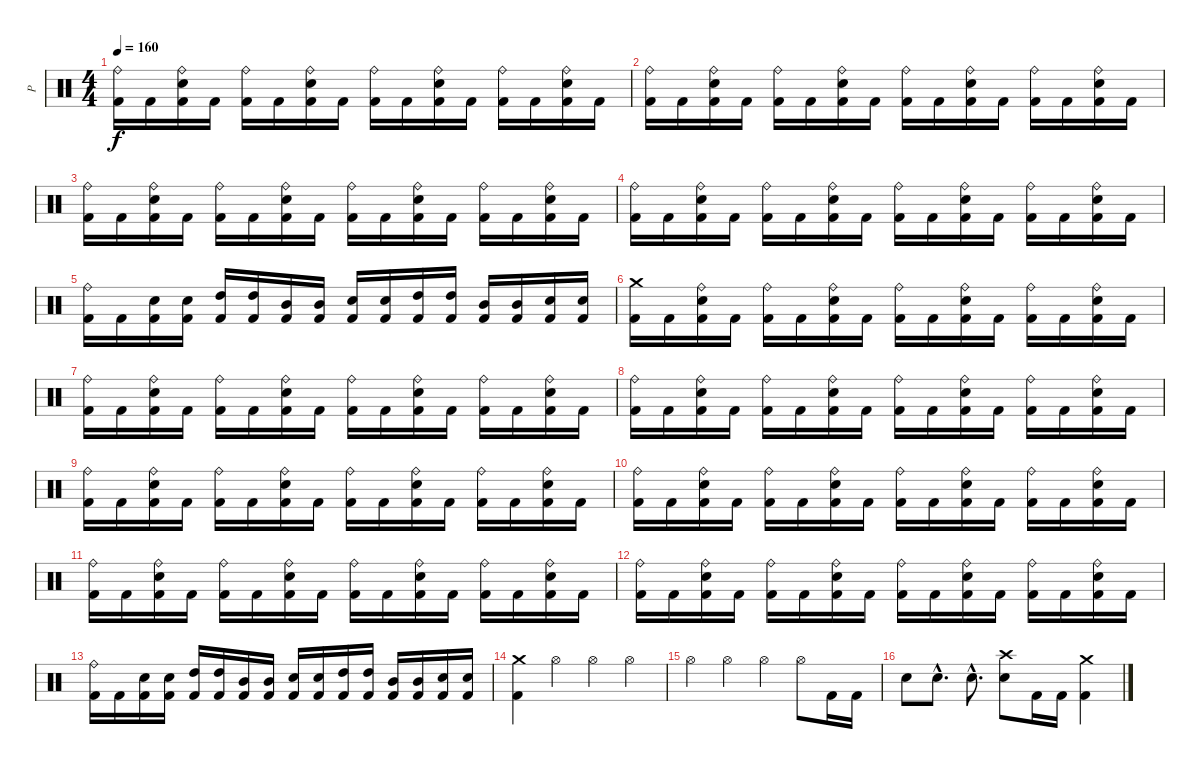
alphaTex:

\track ("P" "P") {instrument percussion}
\staff {score}
\articulation defaults
\ts (4 4)
\tempo 160
\clef neutral
\ks c
("Ride (bell)" "Kick (hit) 2").16{dy f} "Kick (hit) 2".16 ("Ride (bell)" "Electric Snare (hit)" "Kick (hit) 2").16 "Kick (hit) 2".16 ("Ride (bell)" "Kick (hit) 2").16 "Kick (hit) 2".16 ("Ride (bell)" "Electric Snare (hit)" "Kick (hit) 2").16 "Kick (hit) 2".16 ("Ride (bell)" "Kick (hit) 2").16 "Kick (hit) 2".16 ("Ride (bell)" "Electric Snare (hit)" "Kick (hit) 2").16 "Kick (hit) 2".16 ("Ride (bell)" "Kick (hit) 2").16 "Kick (hit) 2".16 ("Ride (bell)" "Electric Snare (hit)" "Kick (hit) 2").16 "Kick (hit) 2".16 |
("Ride (bell)" "Kick (hit) 2").16 "Kick (hit) 2".16 ("Ride (bell)" "Electric Snare (hit)" "Kick (hit) 2").16 "Kick (hit) 2".16 ("Ride (bell)" "Kick (hit) 2").16 "Kick (hit) 2".16 ("Ride (bell)" "Electric Snare (hit)" "Kick (hit) 2").16 "Kick (hit) 2".16 ("Ride (bell)" "Kick (hit) 2").16 "Kick (hit) 2".16 ("Ride (bell)" "Electric Snare (hit)" "Kick (hit) 2").16 "Kick (hit) 2".16 ("Ride (bell)" "Kick (hit) 2").16 "Kick (hit) 2".16 ("Ride (bell)" "Electric Snare (hit)" "Kick (hit) 2").16 "Kick (hit) 2".16 |
("Ride (bell)" "Kick (hit) 2").16 "Kick (hit) 2".16 ("Ride (bell)" "Electric Snare (hit)" "Kick (hit) 2").16 "Kick (hit) 2".16 ("Ride (bell)" "Kick (hit) 2").16 "Kick (hit) 2".16 ("Ride (bell)" "Electric Snare (hit)" "Kick (hit) 2").16 "Kick (hit) 2".16 ("Ride (bell)" "Kick (hit) 2").16 "Kick (hit) 2".16 ("Ride (bell)" "Electric Snare (hit)" "Kick (hit) 2").16 "Kick (hit) 2".16 ("Ride (bell)" "Kick (hit) 2").16 "Kick (hit) 2".16 ("Ride (bell)" "Electric Snare (hit)" "Kick (hit) 2").16 "Kick (hit) 2".16 |
("Ride (bell)" "Kick (hit) 2").16 "Kick (hit) 2".16 ("Ride (bell)" "Electric Snare (hit)" "Kick (hit) 2").16 "Kick (hit) 2".16 ("Ride (bell)" "Kick (hit) 2").16 "Kick (hit) 2".16 ("Ride (bell)" "Electric Snare (hit)" "Kick (hit) 2").16 "Kick (hit) 2".16 ("Ride (bell)" "Kick (hit) 2").16 "Kick (hit) 2".16 ("Ride (bell)" "Electric Snare (hit)" "Kick (hit) 2").16 "Kick (hit) 2".16 ("Ride (bell)" "Kick (hit) 2").16 "Kick (hit) 2".16 ("Ride (bell)" "Electric Snare (hit)" "Kick (hit) 2").16 "Kick (hit) 2".16 |
("Ride (bell)" "Kick (hit) 2").16 "Kick (hit) 2".16 ("Electric Snare (hit)" "Kick (hit) 2").16 ("Electric Snare (hit)" "Kick (hit) 2").16 ("High Tom (hit)" "Kick (hit) 2").16 ("High Tom (hit)" "Kick (hit) 2").16 ("Mid Tom (hit)" "Kick (hit) 2").16 ("Mid Tom (hit)" "Kick (hit) 2").16 ("Electric Snare (hit)" "Kick (hit) 2").16 ("Electric Snare (hit)" "Kick (hit) 2").16 ("High Tom (hit)" "Kick (hit) 2").16 ("High Tom (hit)" "Kick (hit) 2").16 ("Mid Tom (hit)" "Kick (hit) 2").16 ("Mid Tom (hit)" "Kick (hit) 2").16 ("Electric Snare (hit)" "Kick (hit) 2").16 ("Electric Snare (hit)" "Kick (hit) 2").16 |
("Crash medium (hit)" "Kick (hit) 2").16 "Kick (hit) 2".16 ("Ride (bell)" "Electric Snare (hit)" "Kick (hit) 2").16 "Kick (hit) 2".16 ("Ride (bell)" "Kick (hit) 2").16 "Kick (hit) 2".16 ("Ride (bell)" "Electric Snare (hit)" "Kick (hit) 2").16 "Kick (hit) 2".16 ("Ride (bell)" "Kick (hit) 2").16 "Kick (hit) 2".16 ("Ride (bell)" "Electric Snare (hit)" "Kick (hit) 2").16 "Kick (hit) 2".16 ("Ride (bell)" "Kick (hit) 2").16 "Kick (hit) 2".16 ("Ride (bell)" "Electric Snare (hit)" "Kick (hit) 2").16 "Kick (hit) 2".16 |
("Ride (bell)" "Kick (hit) 2").16 "Kick (hit) 2".16 ("Ride (bell)" "Electric Snare (hit)" "Kick (hit) 2").16 "Kick (hit) 2".16 ("Ride (bell)" "Kick (hit) 2").16 "Kick (hit) 2".16 ("Ride (bell)" "Electric Snare (hit)" "Kick (hit) 2").16 "Kick (hit) 2".16 ("Ride (bell)" "Kick (hit) 2").16 "Kick (hit) 2".16 ("Ride (bell)" "Electric Snare (hit)" "Kick (hit) 2").16 "Kick (hit) 2".16 ("Ride (bell)" "Kick (hit) 2").16 "Kick (hit) 2".16 ("Ride (bell)" "Electric Snare (hit)" "Kick (hit) 2").16 "Kick (hit) 2".16 |
("Ride (bell)" "Kick (hit) 2").16 "Kick (hit) 2".16 ("Ride (bell)" "Electric Snare (hit)" "Kick (hit) 2").16 "Kick (hit) 2".16 ("Ride (bell)" "Kick (hit) 2").16 "Kick (hit) 2".16 ("Ride (bell)" "Electric Snare (hit)" "Kick (hit) 2").16 "Kick (hit) 2".16 ("Ride (bell)" "Kick (hit) 2").16 "Kick (hit) 2".16 ("Ride (bell)" "Electric Snare (hit)" "Kick (hit) 2").16 "Kick (hit) 2".16 ("Ride (bell)" "Kick (hit) 2").16 "Kick (hit) 2".16 ("Ride (bell)" "Electric Snare (hit)" "Kick (hit) 2").16 "Kick (hit) 2".16 |
("Ride (bell)" "Kick (hit) 2").16 "Kick (hit) 2".16 ("Ride (bell)" "Electric Snare (hit)" "Kick (hit) 2").16 "Kick (hit) 2".16 ("Ride (bell)" "Kick (hit) 2").16 "Kick (hit) 2".16 ("Ride (bell)" "Electric Snare (hit)" "Kick (hit) 2").16 "Kick (hit) 2".16 ("Ride (bell)" "Kick (hit) 2").16 "Kick (hit) 2".16 ("Ride (bell)" "Electric Snare (hit)" "Kick (hit) 2").16 "Kick (hit) 2".16 ("Ride (bell)" "Kick (hit) 2").16 "Kick (hit) 2".16 ("Ride (bell)" "Electric Snare (hit)" "Kick (hit) 2").16 "Kick (hit) 2".16 |
("Ride (bell)" "Kick (hit) 2").16 "Kick (hit) 2".16 ("Ride (bell)" "Electric Snare (hit)" "Kick (hit) 2").16 "Kick (hit) 2".16 ("Ride (bell)" "Kick (hit) 2").16 "Kick (hit) 2".16 ("Ride (bell)" "Electric Snare (hit)" "Kick (hit) 2").16 "Kick (hit) 2".16 ("Ride (bell)" "Kick (hit) 2").16 "Kick (hit) 2".16 ("Ride (bell)" "Electric Snare (hit)" "Kick (hit) 2").16 "Kick (hit) 2".16 ("Ride (bell)" "Kick (hit) 2").16 "Kick (hit) 2".16 ("Ride (bell)" "Electric Snare (hit)" "Kick (hit) 2").16 "Kick (hit) 2".16 |
("Ride (bell)" "Kick (hit) 2").16 "Kick (hit) 2".16 ("Ride (bell)" "Electric Snare (hit)" "Kick (hit) 2").16 "Kick (hit) 2".16 ("Ride (bell)" "Kick (hit) 2").16 "Kick (hit) 2".16 ("Ride (bell)" "Electric Snare (hit)" "Kick (hit) 2").16 "Kick (hit) 2".16 ("Ride (bell)" "Kick (hit) 2").16 "Kick (hit) 2".16 ("Ride (bell)" "Electric Snare (hit)" "Kick (hit) 2").16 "Kick (hit) 2".16 ("Ride (bell)" "Kick (hit) 2").16 "Kick (hit) 2".16 ("Ride (bell)" "Electric Snare (hit)" "Kick (hit) 2").16 "Kick (hit) 2".16 |
("Ride (bell)" "Kick (hit) 2").16 "Kick (hit) 2".16 ("Ride (bell)" "Electric Snare (hit)" "Kick (hit) 2").16 "Kick (hit) 2".16 ("Ride (bell)" "Kick (hit) 2").16 "Kick (hit) 2".16 ("Ride (bell)" "Electric Snare (hit)" "Kick (hit) 2").16 "Kick (hit) 2".16 ("Ride (bell)" "Kick (hit) 2").16 "Kick (hit) 2".16 ("Ride (bell)" "Electric Snare (hit)" "Kick (hit) 2").16 "Kick (hit) 2".16 ("Ride (bell)" "Kick (hit) 2").16 "Kick (hit) 2".16 ("Ride (bell)" "Electric Snare (hit)" "Kick (hit) 2").16 "Kick (hit) 2".16 |
("Ride (bell)" "Kick (hit) 2").16 "Kick (hit) 2".16 ("Electric Snare (hit)" "Kick (hit) 2").16 ("Electric Snare (hit)" "Kick (hit) 2").16 ("High Tom (hit)" "Kick (hit) 2").16 ("High Tom (hit)" "Kick (hit) 2").16 ("Mid Tom (hit)" "Kick (hit) 2").16 ("Mid Tom (hit)" "Kick (hit) 2").16 ("Electric Snare (hit)" "Kick (hit) 2").16 ("Electric Snare (hit)" "Kick (hit) 2").16 ("High Tom (hit)" "Kick (hit) 2").16 ("High Tom (hit)" "Kick (hit) 2").16 ("Mid Tom (hit)" "Kick (hit) 2").16 ("Mid Tom (hit)" "Kick (hit) 2").16 ("Electric Snare (hit)" "Kick (hit) 2").16 ("Electric Snare (hit)" "Kick (hit) 2").16 |
("Crash medium (hit)" "Kick (hit) 2").4 "Hi-Hat (open)".4 "Hi-Hat (open)".4 "Hi-Hat (open)".4 |
"Hi-Hat (open)".4 "Hi-Hat (open)".4 "Hi-Hat (open)".4 "Hi-Hat (open)".8 "Kick (hit) 2".16 "Kick (hit) 2".16 |
"Electric Snare (hit)".8 "Electric Snare (hit)"{hac}.8{d} "Electric Snare (hit)"{hac}.8{d} ("Crash high (hit)" "Electric Snare (hit)").8 "Kick (hit) 2".16 "Kick (hit) 2".16 ("Crash medium (hit)" "Kick (hit) 2").4
